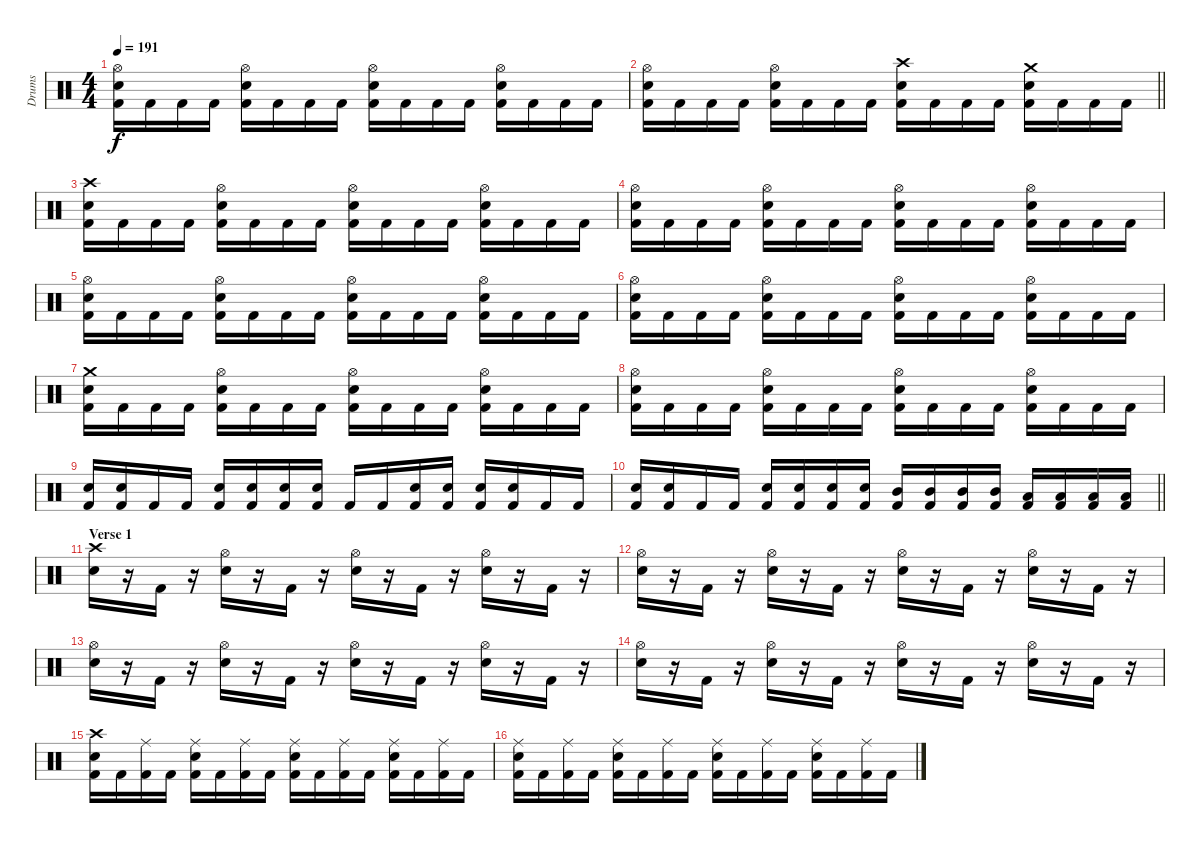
\track ("Drums" "Drums") {instrument percussion}
\staff {score}
\articulation defaults
\ts (4 4)
\tempo 191
\clef neutral
\ks c
("Hi-Hat (open)" "Snare (hit) 2" "Kick (hit) 2").16{dy f} "Kick (hit) 2".16 "Kick (hit) 2".16 "Kick (hit) 2".16 ("Hi-Hat (open)" "Snare (hit) 2" "Kick (hit) 2").16 "Kick (hit) 2".16 "Kick (hit) 2".16 "Kick (hit) 2".16 ("Hi-Hat (open)" "Snare (hit) 2" "Kick (hit) 2").16 "Kick (hit) 2".16 "Kick (hit) 2".16 "Kick (hit) 2".16 ("Hi-Hat (open)" "Snare (hit) 2" "Kick (hit) 2").16 "Kick (hit) 2".16 "Kick (hit) 2".16 "Kick (hit) 2".16 |
\barLineRight lightlight
("Hi-Hat (open)" "Snare (hit) 2" "Kick (hit) 2").16 "Kick (hit) 2".16 "Kick (hit) 2".16 "Kick (hit) 2".16 ("Hi-Hat (open)" "Snare (hit) 2" "Kick (hit) 2").16 "Kick (hit) 2".16 "Kick (hit) 2".16 "Kick (hit) 2".16 ("Crash high (hit)" "Snare (hit) 2" "Kick (hit) 2").16 "Kick (hit) 2".16 "Kick (hit) 2".16 "Kick (hit) 2".16 ("Crash medium (hit)" "Snare (hit) 2" "Kick (hit) 2").16 "Kick (hit) 2".16 "Kick (hit) 2".16 "Kick (hit) 2".16 |
\section ("" "")
("Crash high (hit)" "Snare (hit) 2" "Kick (hit) 2").16 "Kick (hit) 2".16 "Kick (hit) 2".16 "Kick (hit) 2".16 ("Hi-Hat (open)" "Snare (hit) 2" "Kick (hit) 2").16 "Kick (hit) 2".16 "Kick (hit) 2".16 "Kick (hit) 2".16 ("Hi-Hat (open)" "Snare (hit) 2" "Kick (hit) 2").16 "Kick (hit) 2".16 "Kick (hit) 2".16 "Kick (hit) 2".16 ("Hi-Hat (open)" "Snare (hit) 2" "Kick (hit) 2").16 "Kick (hit) 2".16 "Kick (hit) 2".16 "Kick (hit) 2".16 |
("Hi-Hat (open)" "Snare (hit) 2" "Kick (hit) 2").16 "Kick (hit) 2".16 "Kick (hit) 2".16 "Kick (hit) 2".16 ("Hi-Hat (open)" "Snare (hit) 2" "Kick (hit) 2").16 "Kick (hit) 2".16 "Kick (hit) 2".16 "Kick (hit) 2".16 ("Hi-Hat (open)" "Snare (hit) 2" "Kick (hit) 2").16 "Kick (hit) 2".16 "Kick (hit) 2".16 "Kick (hit) 2".16 ("Hi-Hat (open)" "Snare (hit) 2" "Kick (hit) 2").16 "Kick (hit) 2".16 "Kick (hit) 2".16 "Kick (hit) 2".16 |
("Hi-Hat (open)" "Snare (hit) 2" "Kick (hit) 2").16 "Kick (hit) 2".16 "Kick (hit) 2".16 "Kick (hit) 2".16 ("Hi-Hat (open)" "Snare (hit) 2" "Kick (hit) 2").16 "Kick (hit) 2".16 "Kick (hit) 2".16 "Kick (hit) 2".16 ("Hi-Hat (open)" "Snare (hit) 2" "Kick (hit) 2").16 "Kick (hit) 2".16 "Kick (hit) 2".16 "Kick (hit) 2".16 ("Hi-Hat (open)" "Snare (hit) 2" "Kick (hit) 2").16 "Kick (hit) 2".16 "Kick (hit) 2".16 "Kick (hit) 2".16 |
("Hi-Hat (open)" "Snare (hit) 2" "Kick (hit) 2").16 "Kick (hit) 2".16 "Kick (hit) 2".16 "Kick (hit) 2".16 ("Hi-Hat (open)" "Snare (hit) 2" "Kick (hit) 2").16 "Kick (hit) 2".16 "Kick (hit) 2".16 "Kick (hit) 2".16 ("Hi-Hat (open)" "Snare (hit) 2" "Kick (hit) 2").16 "Kick (hit) 2".16 "Kick (hit) 2".16 "Kick (hit) 2".16 ("Hi-Hat (open)" "Snare (hit) 2" "Kick (hit) 2").16 "Kick (hit) 2".16 "Kick (hit) 2".16 "Kick (hit) 2".16 |
("Crash medium (hit)" "Snare (hit) 2" "Kick (hit) 2").16 "Kick (hit) 2".16 "Kick (hit) 2".16 "Kick (hit) 2".16 ("Hi-Hat (open)" "Snare (hit) 2" "Kick (hit) 2").16 "Kick (hit) 2".16 "Kick (hit) 2".16 "Kick (hit) 2".16 ("Hi-Hat (open)" "Snare (hit) 2" "Kick (hit) 2").16 "Kick (hit) 2".16 "Kick (hit) 2".16 "Kick (hit) 2".16 ("Hi-Hat (open)" "Snare (hit) 2" "Kick (hit) 2").16 "Kick (hit) 2".16 "Kick (hit) 2".16 "Kick (hit) 2".16 |
("Hi-Hat (open)" "Snare (hit) 2" "Kick (hit) 2").16 "Kick (hit) 2".16 "Kick (hit) 2".16 "Kick (hit) 2".16 ("Hi-Hat (open)" "Snare (hit) 2" "Kick (hit) 2").16 "Kick (hit) 2".16 "Kick (hit) 2".16 "Kick (hit) 2".16 ("Hi-Hat (open)" "Snare (hit) 2" "Kick (hit) 2").16 "Kick (hit) 2".16 "Kick (hit) 2".16 "Kick (hit) 2".16 ("Hi-Hat (open)" "Snare (hit) 2" "Kick (hit) 2").16 "Kick (hit) 2".16 "Kick (hit) 2".16 "Kick (hit) 2".16 |
("Snare (hit) 2" "Kick (hit) 2").16 ("Snare (hit) 2" "Kick (hit) 2").16 "Kick (hit) 2".16 "Kick (hit) 2".16 ("Snare (hit) 2" "Kick (hit) 2").16 ("Snare (hit) 2" "Kick (hit) 2").16 ("Snare (hit) 2" "Kick (hit) 2").16 ("Snare (hit) 2" "Kick (hit) 2").16 "Kick (hit) 2".16 "Kick (hit) 2".16 ("Snare (hit) 2" "Kick (hit) 2").16 ("Snare (hit) 2" "Kick (hit) 2").16 ("Snare (hit) 2" "Kick (hit) 2").16 ("Snare (hit) 2" "Kick (hit) 2").16 "Kick (hit) 2".16 "Kick (hit) 2".16 |
\barLineRight lightlight
("Snare (hit) 2" "Kick (hit) 2").16 ("Snare (hit) 2" "Kick (hit) 2").16 "Kick (hit) 2".16 "Kick (hit) 2".16 ("Snare (hit) 2" "Kick (hit) 2").16 ("Snare (hit) 2" "Kick (hit) 2").16 ("Snare (hit) 2" "Kick (hit) 2").16 ("Snare (hit) 2" "Kick (hit) 2").16 ("Mid Tom (hit)" "Kick (hit) 2").16 ("Mid Tom (hit)" "Kick (hit) 2").16 ("Mid Tom (hit)" "Kick (hit) 2").16 ("Mid Tom (hit)" "Kick (hit) 2").16 ("Low Tom (hit)" "Kick (hit) 2").16 ("Low Tom (hit)" "Kick (hit) 2").16 ("Low Tom (hit)" "Kick (hit) 2").16 ("Low Tom (hit)" "Kick (hit) 2").16 |
\section ("" "Verse 1")
("Crash high (hit)" "Snare (hit) 2").16 r.16 "Kick (hit) 2".16 r.16 ("Hi-Hat (open)" "Snare (hit) 2").16 r.16 "Kick (hit) 2".16 r.16 ("Hi-Hat (open)" "Snare (hit) 2").16 r.16 "Kick (hit) 2".16 r.16 ("Hi-Hat (open)" "Snare (hit) 2").16 r.16 "Kick (hit) 2".16 r.16 |
("Hi-Hat (open)" "Snare (hit) 2").16 r.16 "Kick (hit) 2".16 r.16 ("Hi-Hat (open)" "Snare (hit) 2").16 r.16 "Kick (hit) 2".16 r.16 ("Hi-Hat (open)" "Snare (hit) 2").16 r.16 "Kick (hit) 2".16 r.16 ("Hi-Hat (open)" "Snare (hit) 2").16 r.16 "Kick (hit) 2".16 r.16 |
("Hi-Hat (open)" "Snare (hit) 2").16 r.16 "Kick (hit) 2".16 r.16 ("Hi-Hat (open)" "Snare (hit) 2").16 r.16 "Kick (hit) 2".16 r.16 ("Hi-Hat (open)" "Snare (hit) 2").16 r.16 "Kick (hit) 2".16 r.16 ("Hi-Hat (open)" "Snare (hit) 2").16 r.16 "Kick (hit) 2".16 r.16 |
("Hi-Hat (open)" "Snare (hit) 2").16 r.16 "Kick (hit) 2".16 r.16 ("Hi-Hat (open)" "Snare (hit) 2").16 r.16 "Kick (hit) 2".16 r.16 ("Hi-Hat (open)" "Snare (hit) 2").16 r.16 "Kick (hit) 2".16 r.16 ("Hi-Hat (open)" "Snare (hit) 2").16 r.16 "Kick (hit) 2".16 r.16 |
("Crash high (hit)" "Snare (hit) 2" "Kick (hit) 2").16 "Kick (hit) 2".16 ("Ride (middle)" "Kick (hit) 2").16 "Kick (hit) 2".16 ("Ride (middle)" "Snare (hit) 2" "Kick (hit) 2").16 "Kick (hit) 2".16 ("Ride (middle)" "Kick (hit) 2").16 "Kick (hit) 2".16 ("Ride (middle)" "Snare (hit) 2" "Kick (hit) 2").16 "Kick (hit) 2".16 ("Ride (middle)" "Kick (hit) 2").16 "Kick (hit) 2".16 ("Ride (middle)" "Snare (hit) 2" "Kick (hit) 2").16 "Kick (hit) 2".16 ("Ride (middle)" "Kick (hit) 2").16 "Kick (hit) 2".16 |
("Ride (middle)" "Snare (hit) 2" "Kick (hit) 2").16 "Kick (hit) 2".16 ("Ride (middle)" "Kick (hit) 2").16 "Kick (hit) 2".16 ("Ride (middle)" "Snare (hit) 2" "Kick (hit) 2").16 "Kick (hit) 2".16 ("Ride (middle)" "Kick (hit) 2").16 "Kick (hit) 2".16 ("Ride (middle)" "Snare (hit) 2" "Kick (hit) 2").16 "Kick (hit) 2".16 ("Ride (middle)" "Kick (hit) 2").16 "Kick (hit) 2".16 ("Ride (middle)" "Snare (hit) 2" "Kick (hit) 2").16 "Kick (hit) 2".16 ("Ride (middle)" "Kick (hit) 2").16 "Kick (hit) 2".16
